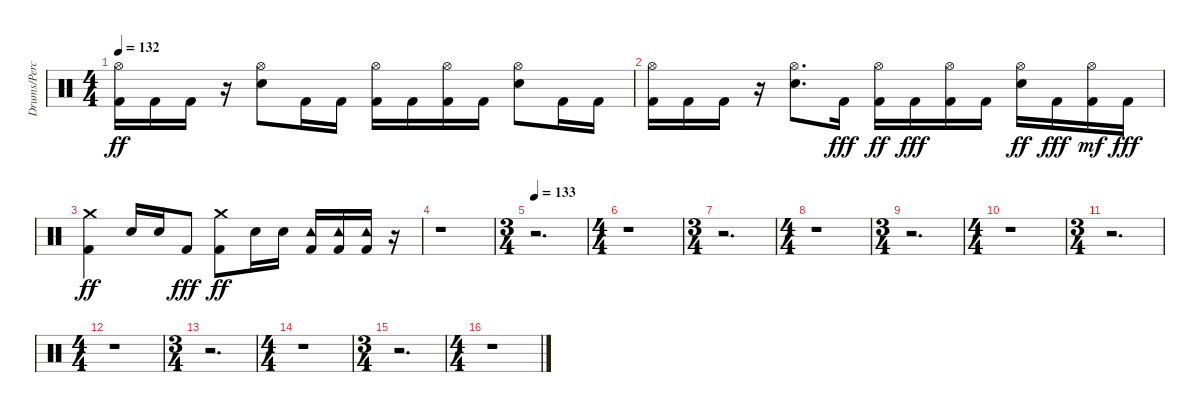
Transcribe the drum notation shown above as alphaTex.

\track ("Drums/Percussion" "Drums/Perc") {instrument percussion}
\staff {score}
\articulation defaults
\ts (4 4)
\tempo 132
\clef neutral
\ks c
("Kick (hit) 2" "Hi-Hat (open)").16{dy ff} "Kick (hit) 2".16 "Kick (hit) 2".16 r.16 ("Snare (hit) 2" "Hi-Hat (open)").8 "Kick (hit) 2".16 "Kick (hit) 2".16 ("Kick (hit) 2" "Hi-Hat (open)").16 "Kick (hit) 2".16 ("Kick (hit) 2" "Hi-Hat (open)").16 "Kick (hit) 2".16 ("Snare (hit) 2" "Hi-Hat (open)").8 "Kick (hit) 2".16 "Kick (hit) 2".16 |
("Kick (hit) 2" "Hi-Hat (open)").16 "Kick (hit) 2".16 "Kick (hit) 2".16 r.16 ("Snare (hit) 2" "Hi-Hat (open)").8{d} "Kick (hit) 2".16{dy fff} ("Kick (hit) 2" "Hi-Hat (open)").16{dy ff} "Kick (hit) 2".16{dy fff} ("Kick (hit) 2" "Hi-Hat (open)").16 "Kick (hit) 2".16 ("Snare (hit) 2" "Hi-Hat (open)").16{dy ff} "Kick (hit) 2".16{dy fff} ("Kick (hit) 2" "Hi-Hat (open)").16{dy mf} "Kick (hit) 2".16{dy fff} |
("Kick (hit) 2" "Crash medium (hit)").4{dy ff} "Snare (hit) 2".16 "Snare (hit) 2".16 "Kick (hit) 2".8{dy fff} ("Kick (hit) 2" "Crash medium (hit)").8{dy ff} "Snare (hit) 2".16 "Snare (hit) 2".16 ("Kick (hit) 2" "Tambourine (hit)").16 ("Kick (hit) 2" "Tambourine (hit)").16 ("Kick (hit) 2" "Tambourine (hit)").16 r.16 |
r.1 |
\ts (3 4)
\tempo 133
r.2{d} |
\ts (4 4)
r.1 |
\ts (3 4)
r.2{d} |
\ts (4 4)
r.1 |
\ts (3 4)
r.2{d} |
\ts (4 4)
r.1 |
\ts (3 4)
r.2{d} |
\ts (4 4)
r.1 |
\ts (3 4)
r.2{d} |
\ts (4 4)
r.1 |
\ts (3 4)
r.2{d} |
\ts (4 4)
r.1
